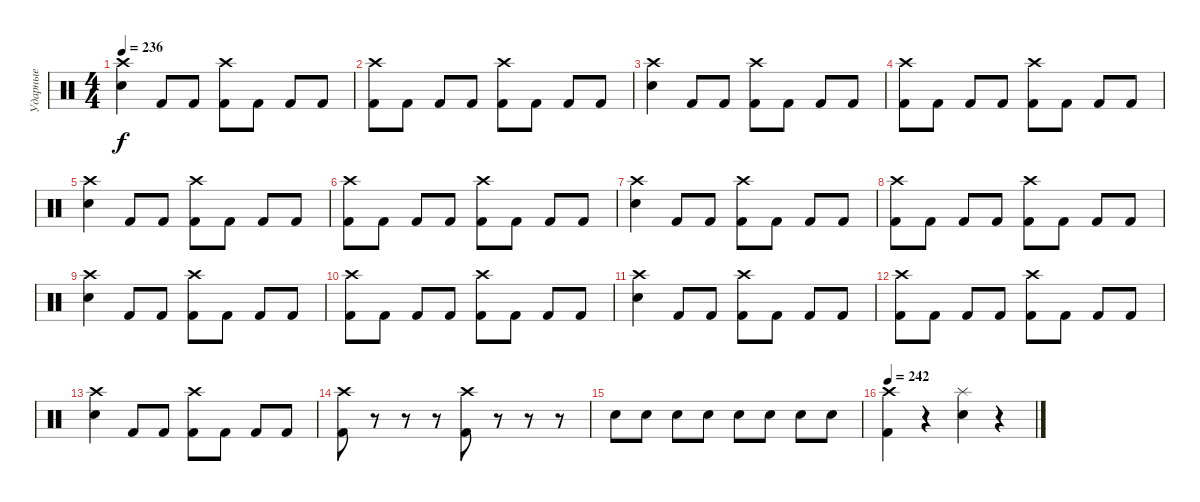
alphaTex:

\track ("Ударные" "Ударные") {instrument percussion}
\staff {score}
\articulation defaults
\ts (4 4)
\tempo 236
\clef neutral
\ks c
("Crash high (hit)" "Electric Snare (hit)").4{dy f} "Kick (hit) 2".8 "Kick (hit) 2".8 ("Crash high (hit)" "Kick (hit) 2").8 "Kick (hit) 2".8 "Kick (hit) 2".8 "Kick (hit) 2".8 |
("Crash high (hit)" "Kick (hit) 2").8 "Kick (hit) 2".8 "Kick (hit) 2".8 "Kick (hit) 2".8 ("Crash high (hit)" "Kick (hit) 2").8 "Kick (hit) 2".8 "Kick (hit) 2".8 "Kick (hit) 2".8 |
("Crash high (hit)" "Electric Snare (hit)").4 "Kick (hit) 2".8 "Kick (hit) 2".8 ("Crash high (hit)" "Kick (hit) 2").8 "Kick (hit) 2".8 "Kick (hit) 2".8 "Kick (hit) 2".8 |
("Crash high (hit)" "Kick (hit) 2").8 "Kick (hit) 2".8 "Kick (hit) 2".8 "Kick (hit) 2".8 ("Crash high (hit)" "Kick (hit) 2").8 "Kick (hit) 2".8 "Kick (hit) 2".8 "Kick (hit) 2".8 |
("Crash high (hit)" "Electric Snare (hit)").4 "Kick (hit) 2".8 "Kick (hit) 2".8 ("Crash high (hit)" "Kick (hit) 2").8 "Kick (hit) 2".8 "Kick (hit) 2".8 "Kick (hit) 2".8 |
("Crash high (hit)" "Kick (hit) 2").8 "Kick (hit) 2".8 "Kick (hit) 2".8 "Kick (hit) 2".8 ("Crash high (hit)" "Kick (hit) 2").8 "Kick (hit) 2".8 "Kick (hit) 2".8 "Kick (hit) 2".8 |
("Crash high (hit)" "Electric Snare (hit)").4 "Kick (hit) 2".8 "Kick (hit) 2".8 ("Crash high (hit)" "Kick (hit) 2").8 "Kick (hit) 2".8 "Kick (hit) 2".8 "Kick (hit) 2".8 |
("Crash high (hit)" "Kick (hit) 2").8 "Kick (hit) 2".8 "Kick (hit) 2".8 "Kick (hit) 2".8 ("Crash high (hit)" "Kick (hit) 2").8 "Kick (hit) 2".8 "Kick (hit) 2".8 "Kick (hit) 2".8 |
("Crash high (hit)" "Electric Snare (hit)").4 "Kick (hit) 2".8 "Kick (hit) 2".8 ("Crash high (hit)" "Kick (hit) 2").8 "Kick (hit) 2".8 "Kick (hit) 2".8 "Kick (hit) 2".8 |
("Crash high (hit)" "Kick (hit) 2").8 "Kick (hit) 2".8 "Kick (hit) 2".8 "Kick (hit) 2".8 ("Crash high (hit)" "Kick (hit) 2").8 "Kick (hit) 2".8 "Kick (hit) 2".8 "Kick (hit) 2".8 |
("Crash high (hit)" "Electric Snare (hit)").4 "Kick (hit) 2".8 "Kick (hit) 2".8 ("Crash high (hit)" "Kick (hit) 2").8 "Kick (hit) 2".8 "Kick (hit) 2".8 "Kick (hit) 2".8 |
("Crash high (hit)" "Kick (hit) 2").8 "Kick (hit) 2".8 "Kick (hit) 2".8 "Kick (hit) 2".8 ("Crash high (hit)" "Kick (hit) 2").8 "Kick (hit) 2".8 "Kick (hit) 2".8 "Kick (hit) 2".8 |
("Crash high (hit)" "Electric Snare (hit)").4 "Kick (hit) 2".8 "Kick (hit) 2".8 ("Crash high (hit)" "Kick (hit) 2").8 "Kick (hit) 2".8 "Kick (hit) 2".8 "Kick (hit) 2".8 |
("Crash high (hit)" "Kick (hit) 2").8 r.8 r.8 r.8 ("Crash high (hit)" "Kick (hit) 2").8 r.8 r.8 r.8 |
"Electric Snare (hit)".8 "Electric Snare (hit)".8 "Electric Snare (hit)".8 "Electric Snare (hit)".8 "Electric Snare (hit)".8 "Electric Snare (hit)".8 "Electric Snare (hit)".8 "Electric Snare (hit)".8 |
\tempo 242
("Crash high (hit)" "Kick (hit) 2").4 r.4 ("Splash (hit)" "Electric Snare (hit)").4 r.4
